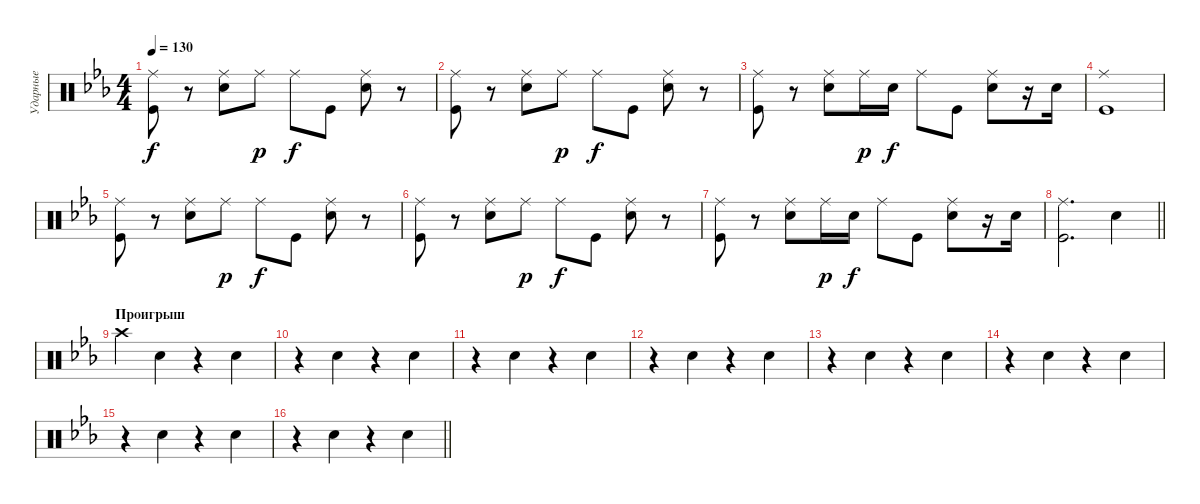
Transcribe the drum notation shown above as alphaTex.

\track ("Ударные" "Ударные") {instrument percussion}
\staff {score}
\articulation defaults
\ts (4 4)
\tempo 130
\clef neutral
\ks cminor
("Ride (middle)" "Kick (hit)").8{dy f} r.8 ("Ride (middle)" "Electric Snare (hit)").8 "Ride (middle)".8{dy p} "Ride (middle)".8{dy f} "Kick (hit)".8 ("Ride (middle)" "Electric Snare (hit)").8 r.8 |
("Ride (middle)" "Kick (hit)").8 r.8 ("Ride (middle)" "Electric Snare (hit)").8 "Ride (middle)".8{dy p} "Ride (middle)".8{dy f} "Kick (hit)".8 ("Ride (middle)" "Electric Snare (hit)").8 r.8 |
("Ride (middle)" "Kick (hit)").8 r.8 ("Ride (middle)" "Electric Snare (hit)").8 "Ride (middle)".16{dy p} "Electric Snare (hit)".16{dy f} "Ride (middle)".8 "Kick (hit)".8 ("Ride (middle)" "Electric Snare (hit)").8 r.16 "Electric Snare (hit)".16 |
("Ride (middle)" "Kick (hit)").1 |
("Ride (middle)" "Kick (hit)").8 r.8 ("Ride (middle)" "Electric Snare (hit)").8 "Ride (middle)".8{dy p} "Ride (middle)".8{dy f} "Kick (hit)".8 ("Ride (middle)" "Electric Snare (hit)").8 r.8 |
("Ride (middle)" "Kick (hit)").8 r.8 ("Ride (middle)" "Electric Snare (hit)").8 "Ride (middle)".8{dy p} "Ride (middle)".8{dy f} "Kick (hit)".8 ("Ride (middle)" "Electric Snare (hit)").8 r.8 |
("Ride (middle)" "Kick (hit)").8 r.8 ("Ride (middle)" "Electric Snare (hit)").8 "Ride (middle)".16{dy p} "Electric Snare (hit)".16{dy f} "Ride (middle)".8 "Kick (hit)".8 ("Ride (middle)" "Electric Snare (hit)").8 r.16 "Electric Snare (hit)".16 |
\barLineRight lightlight
("Ride (middle)" "Kick (hit)").2{d} "Electric Snare (hit)".4 |
\section ("" "Проигрыш")
"Crash high (hit)".4 "Snare (hit) 2".4 r.4 "Snare (hit) 2".4 |
r.4 "Snare (hit) 2".4 r.4 "Snare (hit) 2".4 |
r.4 "Snare (hit) 2".4 r.4 "Snare (hit) 2".4 |
r.4 "Snare (hit) 2".4 r.4 "Snare (hit) 2".4 |
r.4 "Snare (hit) 2".4 r.4 "Snare (hit) 2".4 |
r.4 "Snare (hit) 2".4 r.4 "Snare (hit) 2".4 |
r.4 "Snare (hit) 2".4 r.4 "Snare (hit) 2".4 |
\barLineRight lightlight
r.4 "Snare (hit) 2".4 r.4 "Snare (hit) 2".4
